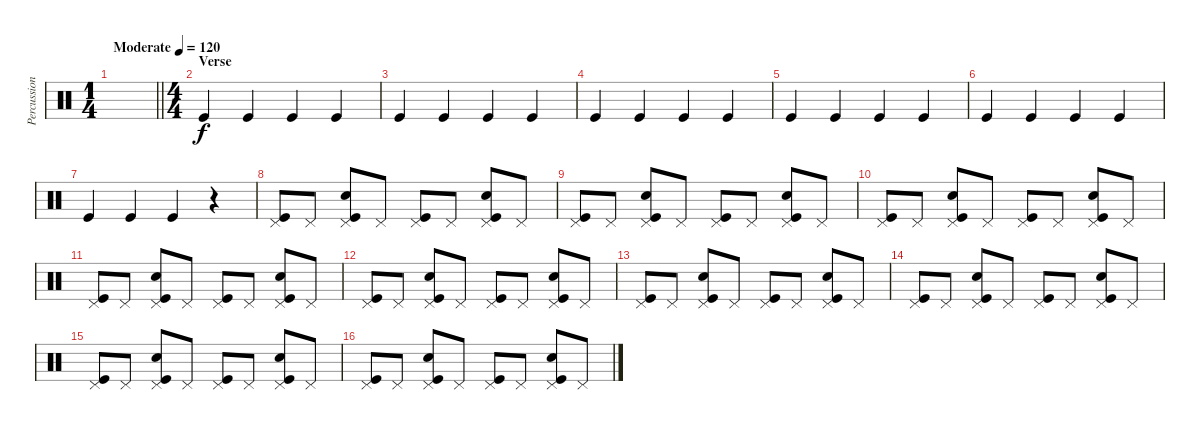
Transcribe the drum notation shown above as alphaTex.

\track ("Percussion" "Percussion") {instrument percussion}
\staff {score}
\articulation defaults
\ts (1 4)
\tempo (120 "Moderate")
\clef neutral
\barLineRight lightlight
\ks c
|
\ts (4 4)
\section ("" "Verse")
"Kick (hit)".4 "Kick (hit)".4 "Kick (hit)".4 "Kick (hit)".4 |
"Kick (hit)".4 "Kick (hit)".4 "Kick (hit)".4 "Kick (hit)".4 |
"Kick (hit)".4 "Kick (hit)".4 "Kick (hit)".4 "Kick (hit)".4 |
"Kick (hit)".4 "Kick (hit)".4 "Kick (hit)".4 "Kick (hit)".4 |
"Kick (hit)".4 "Kick (hit)".4 "Kick (hit)".4 "Kick (hit)".4 |
"Kick (hit)".4 "Kick (hit)".4 "Kick (hit)".4 r.4 |
("Pedal Hi-Hat (hit)" "Kick (hit)").8 "Pedal Hi-Hat (hit)".8 ("Pedal Hi-Hat (hit)" "Electric Snare (hit)" "Kick (hit)").8 "Pedal Hi-Hat (hit)".8 ("Pedal Hi-Hat (hit)" "Kick (hit)").8 "Pedal Hi-Hat (hit)".8 ("Pedal Hi-Hat (hit)" "Electric Snare (hit)" "Kick (hit)").8 "Pedal Hi-Hat (hit)".8 |
("Pedal Hi-Hat (hit)" "Kick (hit)").8 "Pedal Hi-Hat (hit)".8 ("Pedal Hi-Hat (hit)" "Electric Snare (hit)" "Kick (hit)").8 "Pedal Hi-Hat (hit)".8 ("Pedal Hi-Hat (hit)" "Kick (hit)").8 "Pedal Hi-Hat (hit)".8 ("Pedal Hi-Hat (hit)" "Electric Snare (hit)" "Kick (hit)").8 "Pedal Hi-Hat (hit)".8 |
("Pedal Hi-Hat (hit)" "Kick (hit)").8 "Pedal Hi-Hat (hit)".8 ("Pedal Hi-Hat (hit)" "Electric Snare (hit)" "Kick (hit)").8 "Pedal Hi-Hat (hit)".8 ("Pedal Hi-Hat (hit)" "Kick (hit)").8 "Pedal Hi-Hat (hit)".8 ("Pedal Hi-Hat (hit)" "Electric Snare (hit)" "Kick (hit)").8 "Pedal Hi-Hat (hit)".8 |
("Pedal Hi-Hat (hit)" "Kick (hit)").8 "Pedal Hi-Hat (hit)".8 ("Pedal Hi-Hat (hit)" "Electric Snare (hit)" "Kick (hit)").8 "Pedal Hi-Hat (hit)".8 ("Pedal Hi-Hat (hit)" "Kick (hit)").8 "Pedal Hi-Hat (hit)".8 ("Pedal Hi-Hat (hit)" "Electric Snare (hit)" "Kick (hit)").8 "Pedal Hi-Hat (hit)".8 |
("Pedal Hi-Hat (hit)" "Kick (hit)").8 "Pedal Hi-Hat (hit)".8 ("Pedal Hi-Hat (hit)" "Electric Snare (hit)" "Kick (hit)").8 "Pedal Hi-Hat (hit)".8 ("Pedal Hi-Hat (hit)" "Kick (hit)").8 "Pedal Hi-Hat (hit)".8 ("Pedal Hi-Hat (hit)" "Electric Snare (hit)" "Kick (hit)").8 "Pedal Hi-Hat (hit)".8 |
("Pedal Hi-Hat (hit)" "Kick (hit)").8 "Pedal Hi-Hat (hit)".8 ("Pedal Hi-Hat (hit)" "Electric Snare (hit)" "Kick (hit)").8 "Pedal Hi-Hat (hit)".8 ("Pedal Hi-Hat (hit)" "Kick (hit)").8 "Pedal Hi-Hat (hit)".8 ("Pedal Hi-Hat (hit)" "Electric Snare (hit)" "Kick (hit)").8 "Pedal Hi-Hat (hit)".8 |
("Pedal Hi-Hat (hit)" "Kick (hit)").8 "Pedal Hi-Hat (hit)".8 ("Pedal Hi-Hat (hit)" "Electric Snare (hit)" "Kick (hit)").8 "Pedal Hi-Hat (hit)".8 ("Pedal Hi-Hat (hit)" "Kick (hit)").8 "Pedal Hi-Hat (hit)".8 ("Pedal Hi-Hat (hit)" "Electric Snare (hit)" "Kick (hit)").8 "Pedal Hi-Hat (hit)".8 |
("Pedal Hi-Hat (hit)" "Kick (hit)").8 "Pedal Hi-Hat (hit)".8 ("Pedal Hi-Hat (hit)" "Electric Snare (hit)" "Kick (hit)").8 "Pedal Hi-Hat (hit)".8 ("Pedal Hi-Hat (hit)" "Kick (hit)").8 "Pedal Hi-Hat (hit)".8 ("Pedal Hi-Hat (hit)" "Electric Snare (hit)" "Kick (hit)").8 "Pedal Hi-Hat (hit)".8 |
("Pedal Hi-Hat (hit)" "Kick (hit)").8 "Pedal Hi-Hat (hit)".8 ("Pedal Hi-Hat (hit)" "Electric Snare (hit)" "Kick (hit)").8 "Pedal Hi-Hat (hit)".8 ("Pedal Hi-Hat (hit)" "Kick (hit)").8 "Pedal Hi-Hat (hit)".8 ("Pedal Hi-Hat (hit)" "Electric Snare (hit)" "Kick (hit)").8 "Pedal Hi-Hat (hit)".8
